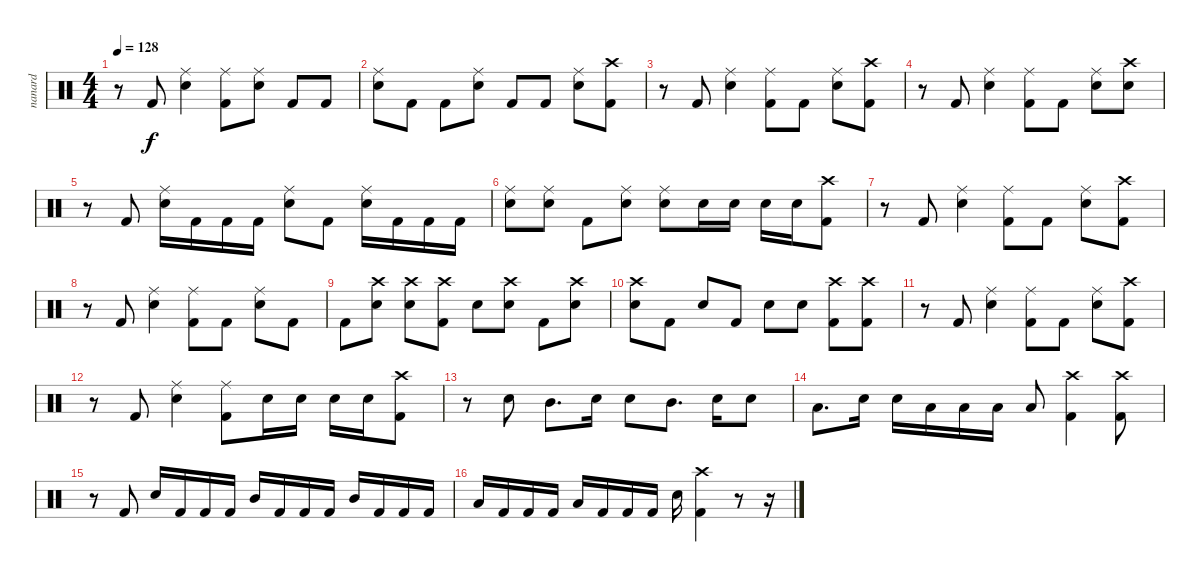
\track ("nanard" "nanard") {instrument percussion}
\staff {score}
\articulation defaults
\ts (4 4)
\tempo 128
\clef neutral
\ks c
r.8{dy f} "Kick (hit) 2".8 ("Ride (middle)" "Electric Snare (hit)").4 ("Ride (middle)" "Kick (hit) 2").8 ("Ride (middle)" "Electric Snare (hit)").8 "Kick (hit) 2".8 "Kick (hit) 2".8 |
("Ride (middle)" "Electric Snare (hit)").8 "Kick (hit) 2".8 "Kick (hit) 2".8 ("Ride (middle)" "Electric Snare (hit)").8 "Kick (hit) 2".8 "Kick (hit) 2".8 ("Ride (middle)" "Electric Snare (hit)").8 ("Crash high (hit)" "Kick (hit) 2").8 |
r.8 "Kick (hit) 2".8 ("Ride (middle)" "Electric Snare (hit)").4 ("Ride (middle)" "Kick (hit) 2").8 "Kick (hit) 2".8 ("Ride (middle)" "Electric Snare (hit)").8 ("Crash high (hit)" "Kick (hit) 2").8 |
r.8 "Kick (hit) 2".8 ("Ride (middle)" "Electric Snare (hit)").4 ("Ride (middle)" "Kick (hit) 2").8 "Kick (hit) 2".8 ("Ride (middle)" "Electric Snare (hit)").8 ("Crash high (hit)" "Electric Snare (hit)").8 |
r.8 "Kick (hit) 2".8 ("Ride (middle)" "Electric Snare (hit)").16 "Kick (hit) 2".16 "Kick (hit) 2".16 "Kick (hit) 2".16 ("Ride (middle)" "Electric Snare (hit)").8 "Kick (hit) 2".8 ("Ride (middle)" "Electric Snare (hit)").16 "Kick (hit) 2".16 "Kick (hit) 2".16 "Kick (hit) 2".16 |
("Ride (middle)" "Electric Snare (hit)").8 ("Ride (middle)" "Electric Snare (hit)").8 "Kick (hit) 2".8 ("Ride (middle)" "Electric Snare (hit)").8 ("Ride (middle)" "Electric Snare (hit)").8 "Electric Snare (hit)".16 "Electric Snare (hit)".16 "Electric Snare (hit)".16 "Electric Snare (hit)".16 ("Crash high (hit)" "Kick (hit) 2").8 |
r.8 "Kick (hit) 2".8 ("Ride (middle)" "Electric Snare (hit)").4 ("Ride (middle)" "Kick (hit) 2").8 "Kick (hit) 2".8 ("Ride (middle)" "Electric Snare (hit)").8 ("Crash high (hit)" "Kick (hit) 2").8 |
r.8 "Kick (hit) 2".8 ("Ride (middle)" "Electric Snare (hit)").4 ("Ride (middle)" "Kick (hit) 2").8 "Kick (hit) 2".8 ("Ride (middle)" "Electric Snare (hit)").8 "Kick (hit) 2".8 |
"Kick (hit) 2".8 ("Crash high (hit)" "Electric Snare (hit)").8 ("Crash high (hit)" "Electric Snare (hit)").8 ("Crash high (hit)" "Kick (hit) 2").8 "Electric Snare (hit)".8 ("Crash high (hit)" "Electric Snare (hit)").8 "Kick (hit) 2".8 ("Crash high (hit)" "Electric Snare (hit)").8 |
("Crash high (hit)" "Electric Snare (hit)").8 "Kick (hit) 2".8 "Electric Snare (hit)".8 "Kick (hit) 2".8 "Electric Snare (hit)".8 "Electric Snare (hit)".8 ("Crash high (hit)" "Kick (hit) 2").8 ("Crash high (hit)" "Kick (hit) 2").8 |
r.8 "Kick (hit) 2".8 ("Ride (middle)" "Electric Snare (hit)").4 ("Ride (middle)" "Kick (hit) 2").8 "Kick (hit) 2".8 ("Ride (middle)" "Electric Snare (hit)").8 ("Crash high (hit)" "Kick (hit) 2").8 |
r.8 "Kick (hit) 2".8 ("Ride (middle)" "Electric Snare (hit)").4 ("Ride (middle)" "Kick (hit) 2").8 "Electric Snare (hit)".16 "Electric Snare (hit)".16 "Electric Snare (hit)".16 "Electric Snare (hit)".16 ("Crash high (hit)" "Kick (hit) 2").8 |
r.8 "Electric Snare (hit)".8 "Mid Tom (hit)".8{d} "Electric Snare (hit)".16 "Electric Snare (hit)".8 "Mid Tom (hit)".8{d} "Electric Snare (hit)".16 "Electric Snare (hit)".8 |
"Low Tom (hit)".8{d} "Electric Snare (hit)".16 "Electric Snare (hit)".16 "Low Tom (hit)".16 "Low Tom (hit)".16 "Low Floor Tom (hit)".16 "Low Floor Tom (hit)".8 ("Crash high (hit)" "Kick (hit) 2").4 ("Crash high (hit)" "Kick (hit) 2").8 |
r.8 "Kick (hit) 2".8 "Electric Snare (hit)".16 "Kick (hit) 2".16 "Kick (hit) 2".16 "Kick (hit) 2".16 "Mid Tom (hit)".16 "Kick (hit) 2".16 "Kick (hit) 2".16 "Kick (hit) 2".16 "Mid Tom (hit)".16 "Kick (hit) 2".16 "Kick (hit) 2".16 "Kick (hit) 2".16 |
"Low Tom (hit)".16 "Kick (hit) 2".16 "Kick (hit) 2".16 "Kick (hit) 2".16 "Low Floor Tom (hit)".16 "Kick (hit) 2".16 "Kick (hit) 2".16 "Kick (hit) 2".16 "Electric Snare (hit)".16 ("Crash high (hit)" "Kick (hit) 2").4 r.8 r.16
